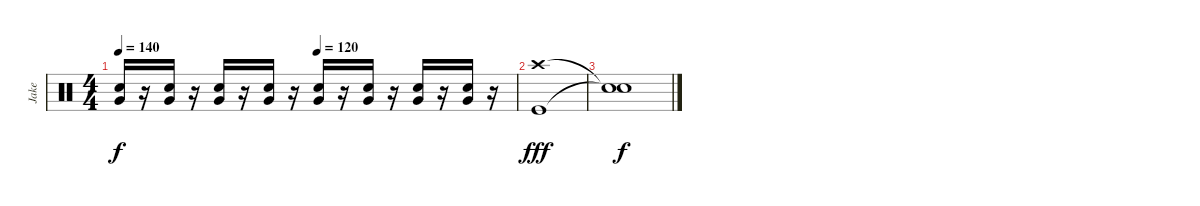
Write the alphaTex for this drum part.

\track ("Jake" "Jake") {instrument percussion}
\staff {score}
\articulation defaults
\ts (4 4)
\tempo 140
\tempo (120 0.5)
\clef neutral
\ks c
("Very Low Tom (hit)" "Electric Snare (hit)").16{dy f} r.16 ("Very Low Tom (hit)" "Electric Snare (hit)").16 r.16 ("Very Low Tom (hit)" "Electric Snare (hit)").16 r.16 ("Very Low Tom (hit)" "Electric Snare (hit)").16 r.16 ("Very Low Tom (hit)" "Electric Snare (hit)").16 r.16 ("Very Low Tom (hit)" "Electric Snare (hit)").16 r.16 ("Very Low Tom (hit)" "Electric Snare (hit)").16 r.16 ("Very Low Tom (hit)" "Electric Snare (hit)").16 r.16 |
("Crash high (hit)" "Kick (hit)").1{dy fff} |
("Snare (hit)"{t} "Snare (hit)"{t}).1{dy f}
